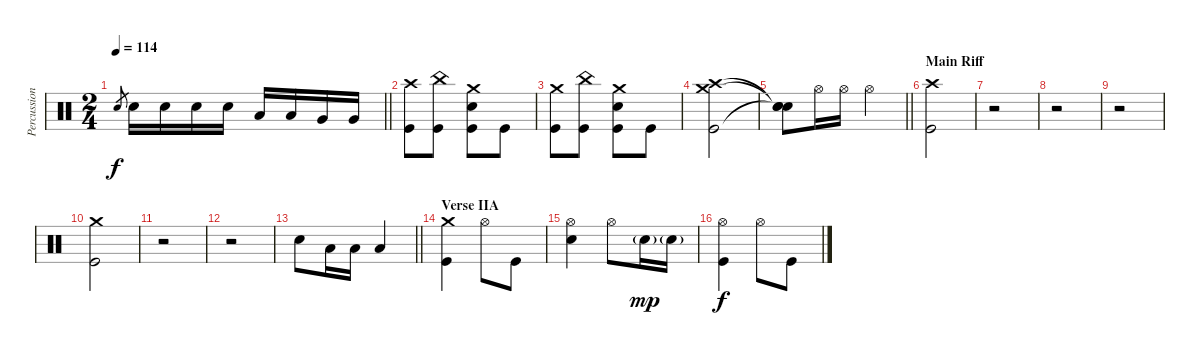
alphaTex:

\track ("Percussion" "Percussion") {instrument percussion}
\staff {score}
\articulation defaults
\ts (2 4)
\tempo 114
\clef neutral
\barLineRight lightlight
\ks c "Electric Snare (hit)".8{gr dy f} "Electric Snare (hit)".16 "Electric Snare (hit)".16 "Electric Snare (hit)".16 "Electric Snare (hit)".16 "Low Tom (hit)".16 "Low Tom (hit)".16 "Very Low Tom (hit)".16 "Very Low Tom (hit)".16
|
\section ("" "")
("Crash high (hit)" "Kick (hit)").8 ("China (hit)" "Kick (hit)").8 ("Crash medium (hit)" "Electric Snare (hit)" "Kick (hit)").8 "Kick (hit)".8 |
("Crash medium (hit)" "Kick (hit)").8 ("China (hit)" "Kick (hit)").8 ("Crash medium (hit)" "Electric Snare (hit)" "Kick (hit)").8 "Kick (hit)".8 |
("Crash high (hit)" "Crash medium (hit)" "Kick (hit)").2 |
\barLineRight lightlight
("Snare (hit)"{t} "Snare (hit)"{t} "Snare (hit)"{t}).8 "Hi-Hat (open)".16 "Hi-Hat (open)".16 "Hi-Hat (open)".4 |
\section ("" "Main Riff")
("Crash high (hit)" "Kick (hit)").2 |
r.2 |
r.2 |
r.2 |
("Crash medium (hit)" "Kick (hit)").2 |
r.2 |
r.2 |
\barLineRight lightlight "Electric Snare (hit)".8 "Low Floor Tom (hit)".16 "Low Floor Tom (hit)".16 "Low Floor Tom (hit)".4
|
\section ("" "Verse IIA")
("Crash medium (hit)" "Kick (hit)").4 "Hi-Hat (open)".8 "Kick (hit)".8 |
("Hi-Hat (open)" "Electric Snare (hit)").4 "Hi-Hat (open)".8 "Electric Snare (hit)"{g}.16{dy mp} "Electric Snare (hit)"{g}.16 |
("Hi-Hat (open)" "Kick (hit)").4{dy f} "Hi-Hat (open)".8 "Kick (hit)".8
